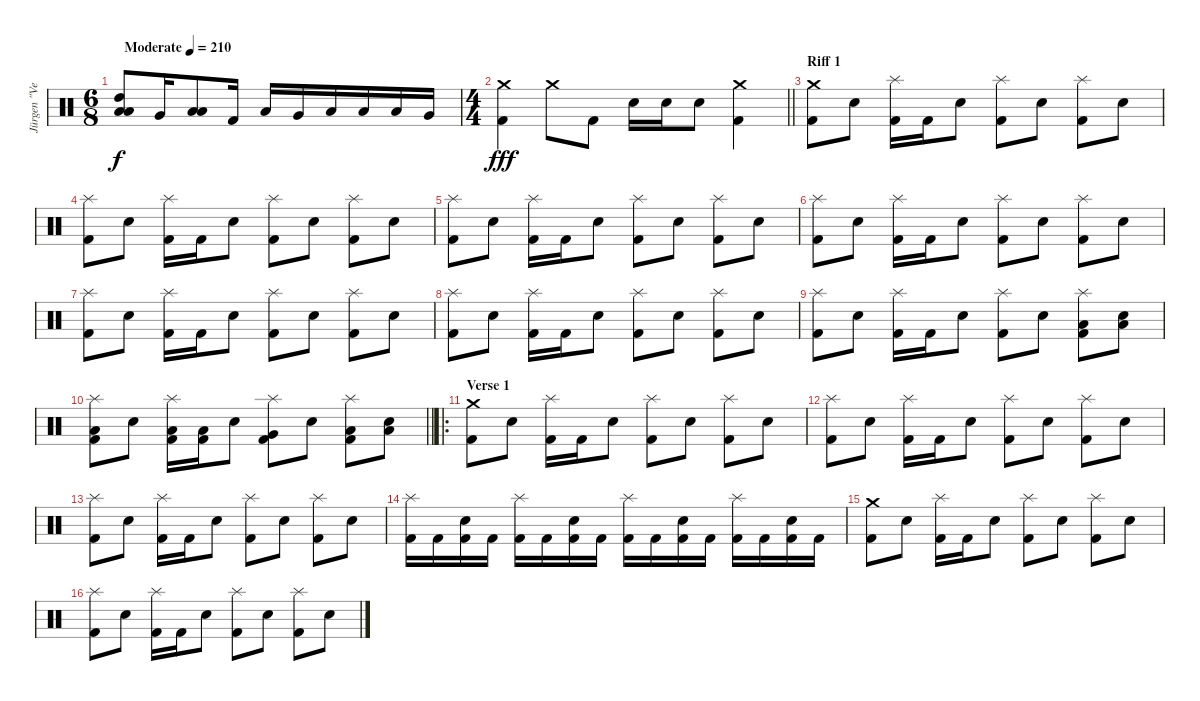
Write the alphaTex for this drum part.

\track ("Jürgen \"Ventor\" Reil" "Jürgen \"Ve") {instrument percussion}
\staff {score}
\articulation defaults
\ts (6 8)
\tempo (210 "Moderate")
\clef neutral
\ks c
("Low Floor Tom (hit)" "High Tom (hit)" "Low Tom (hit)").8{dy f} "Very Low Tom (hit)".16 ("Low Tom (hit)" "Low Floor Tom (hit)").8 "Kick (hit) 2".16 "Low Tom (hit)".16 "Very Low Tom (hit)".16 "Low Tom (hit)".16 "Low Floor Tom (hit)".16 "Low Floor Tom (hit)".16 "Very Low Tom (hit)".16 |
\ts (4 4)
\barLineRight lightlight
("Crash medium (hit)" "Kick (hit) 2").4{dy fff} "Crash medium (hit)".8 "Kick (hit) 2".8 "Electric Snare (hit)".16 "Electric Snare (hit)".16 "Electric Snare (hit)".8 ("Crash medium (hit)" "Kick (hit) 2").4 |
\section ("" "Riff 1")
("Crash medium (hit)" "Kick (hit) 2").8 "Electric Snare (hit)".8 ("Splash (hit)" "Kick (hit) 2").16 "Kick (hit) 2".16 "Electric Snare (hit)".8 ("Splash (hit)" "Kick (hit) 2").8 "Electric Snare (hit)".8 ("Splash (hit)" "Kick (hit) 2").8 "Electric Snare (hit)".8 |
("Splash (hit)" "Kick (hit) 2").8 "Electric Snare (hit)".8 ("Splash (hit)" "Kick (hit) 2").16 "Kick (hit) 2".16 "Electric Snare (hit)".8 ("Splash (hit)" "Kick (hit) 2").8 "Electric Snare (hit)".8 ("Splash (hit)" "Kick (hit) 2").8 "Electric Snare (hit)".8 |
("Splash (hit)" "Kick (hit) 2").8 "Electric Snare (hit)".8 ("Splash (hit)" "Kick (hit) 2").16 "Kick (hit) 2".16 "Electric Snare (hit)".8 ("Splash (hit)" "Kick (hit) 2").8 "Electric Snare (hit)".8 ("Splash (hit)" "Kick (hit) 2").8 "Electric Snare (hit)".8 |
("Splash (hit)" "Kick (hit) 2").8 "Electric Snare (hit)".8 ("Splash (hit)" "Kick (hit) 2").16 "Kick (hit) 2".16 "Electric Snare (hit)".8 ("Splash (hit)" "Kick (hit) 2").8 "Electric Snare (hit)".8 ("Splash (hit)" "Kick (hit) 2").8 "Electric Snare (hit)".8 |
("Splash (hit)" "Kick (hit) 2").8 "Electric Snare (hit)".8 ("Splash (hit)" "Kick (hit) 2").16 "Kick (hit) 2".16 "Electric Snare (hit)".8 ("Splash (hit)" "Kick (hit) 2").8 "Electric Snare (hit)".8 ("Splash (hit)" "Kick (hit) 2").8 "Electric Snare (hit)".8 |
("Splash (hit)" "Kick (hit) 2").8 "Electric Snare (hit)".8 ("Splash (hit)" "Kick (hit) 2").16 "Kick (hit) 2".16 "Electric Snare (hit)".8 ("Splash (hit)" "Kick (hit) 2").8 "Electric Snare (hit)".8 ("Splash (hit)" "Kick (hit) 2").8 "Electric Snare (hit)".8 |
("Splash (hit)" "Kick (hit) 2").8 "Electric Snare (hit)".8 ("Splash (hit)" "Kick (hit) 2").16 "Kick (hit) 2".16 "Electric Snare (hit)".8 ("Splash (hit)" "Kick (hit) 2").8 "Electric Snare (hit)".8 ("Splash (hit)" "Low Tom (hit)" "Kick (hit) 2").8 ("Electric Snare (hit)" "Low Floor Tom (hit)").8 |
\barLineRight lightlight
("Splash (hit)" "Low Tom (hit)" "Kick (hit) 2").8 "Electric Snare (hit)".8 ("Splash (hit)" "Low Floor Tom (hit)" "Kick (hit) 2").16 ("Low Tom (hit)" "Kick (hit) 2").16 "Electric Snare (hit)".8 ("Splash (hit)" "Very Low Tom (hit)" "Kick (hit) 2").8 "Electric Snare (hit)".8 ("Splash (hit)" "Low Floor Tom (hit)" "Kick (hit) 2").8 ("Electric Snare (hit)" "Low Tom (hit)").8 |
\ro
\section ("" "Verse 1")
("Crash medium (hit)" "Kick (hit) 2").8 "Electric Snare (hit)".8 ("Splash (hit)" "Kick (hit) 2").16 "Kick (hit) 2".16 "Electric Snare (hit)".8 ("Splash (hit)" "Kick (hit) 2").8 "Electric Snare (hit)".8 ("Splash (hit)" "Kick (hit) 2").8 "Electric Snare (hit)".8 |
("Splash (hit)" "Kick (hit) 2").8 "Electric Snare (hit)".8 ("Splash (hit)" "Kick (hit) 2").16 "Kick (hit) 2".16 "Electric Snare (hit)".8 ("Splash (hit)" "Kick (hit) 2").8 "Electric Snare (hit)".8 ("Splash (hit)" "Kick (hit) 2").8 "Electric Snare (hit)".8 |
("Splash (hit)" "Kick (hit) 2").8 "Electric Snare (hit)".8 ("Splash (hit)" "Kick (hit) 2").16 "Kick (hit) 2".16 "Electric Snare (hit)".8 ("Splash (hit)" "Kick (hit) 2").8 "Electric Snare (hit)".8 ("Splash (hit)" "Kick (hit) 2").8 "Electric Snare (hit)".8 |
("Splash (hit)" "Kick (hit) 2").16 "Kick (hit) 2".16 ("Electric Snare (hit)" "Kick (hit) 2").16 "Kick (hit) 2".16 ("Splash (hit)" "Kick (hit) 2").16 "Kick (hit) 2".16 ("Electric Snare (hit)" "Kick (hit) 2").16 "Kick (hit) 2".16 ("Splash (hit)" "Kick (hit) 2").16 "Kick (hit) 2".16 ("Electric Snare (hit)" "Kick (hit) 2").16 "Kick (hit) 2".16 ("Splash (hit)" "Kick (hit) 2").16 "Kick (hit) 2".16 ("Electric Snare (hit)" "Kick (hit) 2").16 "Kick (hit) 2".16 |
("Crash medium (hit)" "Kick (hit) 2").8 "Electric Snare (hit)".8 ("Splash (hit)" "Kick (hit) 2").16 "Kick (hit) 2".16 "Electric Snare (hit)".8 ("Splash (hit)" "Kick (hit) 2").8 "Electric Snare (hit)".8 ("Splash (hit)" "Kick (hit) 2").8 "Electric Snare (hit)".8 |
("Splash (hit)" "Kick (hit) 2").8 "Electric Snare (hit)".8 ("Splash (hit)" "Kick (hit) 2").16 "Kick (hit) 2".16 "Electric Snare (hit)".8 ("Splash (hit)" "Kick (hit) 2").8 "Electric Snare (hit)".8 ("Splash (hit)" "Kick (hit) 2").8 "Electric Snare (hit)".8
